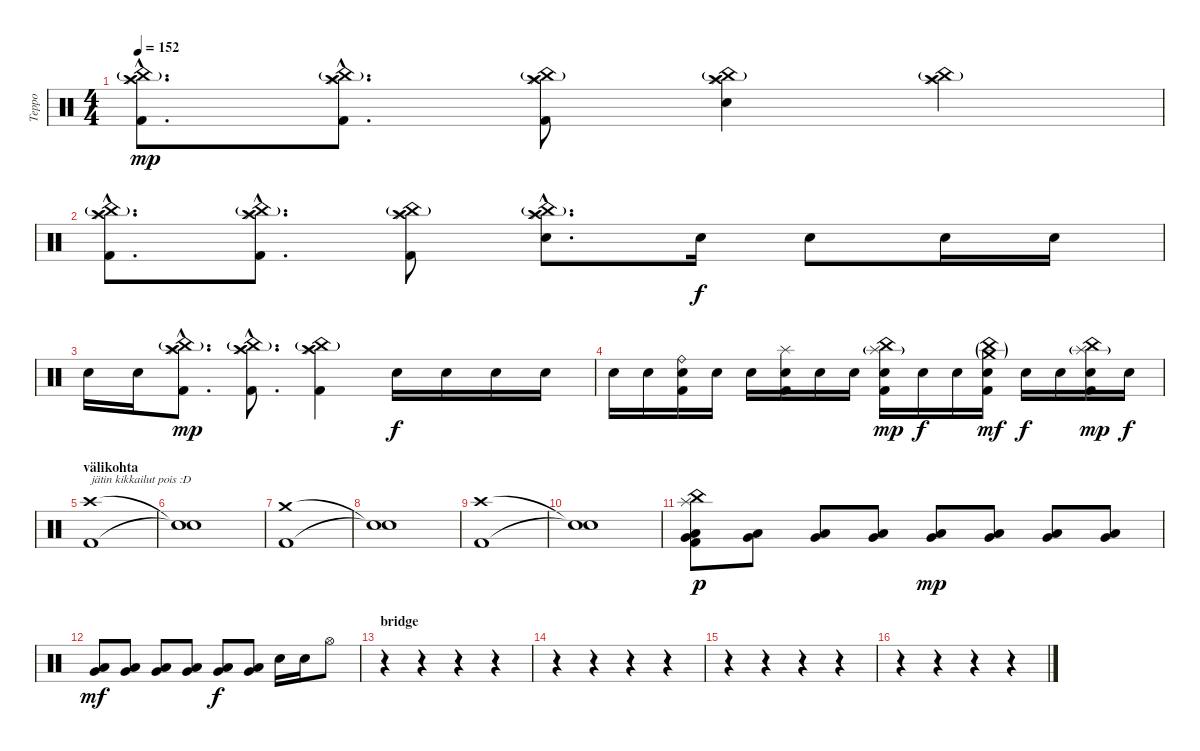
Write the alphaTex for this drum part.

\track ("Teppo" "Teppo") {instrument percussion}
\staff {score}
\articulation defaults
\ts (4 4)
\tempo 152
\clef neutral
\ks c
("Crash high (hit)"{hac} "China (hit)"{g hac} "Splash (hit)"{hac} "Kick (hit) 2"{hac}).8{d dy mp} ("Crash high (hit)"{hac} "China (hit)"{g hac} "Splash (hit)"{hac} "Kick (hit) 2"{hac}).8{d} ("Crash high (hit)" "China (hit)"{g} "Splash (hit)" "Kick (hit) 2").8 ("Crash high (hit)" "China (hit)"{g} "Splash (hit)" "Electric Snare (hit)").4 ("Crash high (hit)" "China (hit)"{g} "Splash (hit)").4 |
("Crash high (hit)"{hac} "China (hit)"{g hac} "Splash (hit)"{hac} "Kick (hit) 2"{hac}).8{d} ("Crash high (hit)"{hac} "China (hit)"{g hac} "Splash (hit)"{hac} "Kick (hit) 2"{hac}).8{d} ("Crash high (hit)" "China (hit)"{g} "Splash (hit)" "Kick (hit) 2").8 ("Crash high (hit)"{hac} "China (hit)"{g hac} "Splash (hit)"{hac} "Electric Snare (hit)"{hac}).8{d} "Electric Snare (hit)".16{dy f} "Electric Snare (hit)".8 "Electric Snare (hit)".16 "Electric Snare (hit)".16 |
"Electric Snare (hit)".16 "Electric Snare (hit)".16 ("Crash high (hit)"{hac} "China (hit)"{g hac} "Splash (hit)"{hac} "Kick (hit) 2"{hac}).8{d dy mp} ("Crash high (hit)"{hac} "China (hit)"{g hac} "Splash (hit)"{hac} "Kick (hit) 2"{hac}).8{d} ("Crash high (hit)" "China (hit)"{g} "Splash (hit)" "Kick (hit) 2").4 "Electric Snare (hit)".16{dy f} "Electric Snare (hit)".16 "Electric Snare (hit)".16 "Electric Snare (hit)".16 |
"Electric Snare (hit)".16 "Electric Snare (hit)".16 ("Ride (bell)" "Electric Snare (hit)" "Kick (hit) 2").16 "Electric Snare (hit)".16 "Electric Snare (hit)".16 ("Splash (hit)" "Electric Snare (hit)" "Kick (hit) 2").16 "Electric Snare (hit)".16 "Electric Snare (hit)".16 ("China (hit)" "Splash (hit)"{g} "Electric Snare (hit)" "Kick (hit) 2").16{dy mp} "Electric Snare (hit)".16{dy f} "Electric Snare (hit)".16 ("China (hit)"{g} "Crash medium (hit)"{g} "Electric Snare (hit)" "Kick (hit) 2").16{dy mf} "Electric Snare (hit)".16{dy f} "Electric Snare (hit)".16 ("China (hit)" "Splash (hit)"{g} "Electric Snare (hit)" "Kick (hit) 2").16{dy mp} "Electric Snare (hit)".16{dy f} |
\section ("" "välikohta")
("Crash high (hit)" "Kick (hit) 2").1{txt "jätin kikkailut pois :D"} |
("Snare (hit)"{t} "Snare (hit)"{t}).1 |
("Crash medium (hit)" "Kick (hit) 2").1 |
("Snare (hit)"{t} "Snare (hit)"{t}).1 |
("Crash high (hit)" "Kick (hit) 2").1 |
("Snare (hit)"{t} "Snare (hit)"{t}).1 |
("China (hit)" "Splash (hit)" "Low Tom (hit)" "Very Low Tom (hit)" "Kick (hit) 2").8{dy p} ("Low Tom (hit)" "Very Low Tom (hit)").8 ("Low Tom (hit)" "Very Low Tom (hit)").8 ("Low Tom (hit)" "Very Low Tom (hit)").8 ("Low Tom (hit)" "Very Low Tom (hit)").8{dy mp} ("Low Tom (hit)" "Very Low Tom (hit)").8 ("Low Tom (hit)" "Very Low Tom (hit)").8 ("Low Tom (hit)" "Very Low Tom (hit)").8 |
("Low Tom (hit)" "Very Low Tom (hit)").8{dy mf} ("Low Tom (hit)" "Very Low Tom (hit)").8 ("Low Tom (hit)" "Very Low Tom (hit)").8 ("Low Tom (hit)" "Very Low Tom (hit)").8 ("Low Tom (hit)" "Very Low Tom (hit)").8{dy f} ("Low Tom (hit)" "Very Low Tom (hit)").8 "Electric Snare (hit)".16 "Electric Snare (hit)".16 "Hi-Hat (open)".8 |
\section ("" "bridge")
r.4 r.4 r.4 r.4 |
r.4 r.4 r.4 r.4 |
r.4 r.4 r.4 r.4 |
r.4 r.4 r.4 r.4
